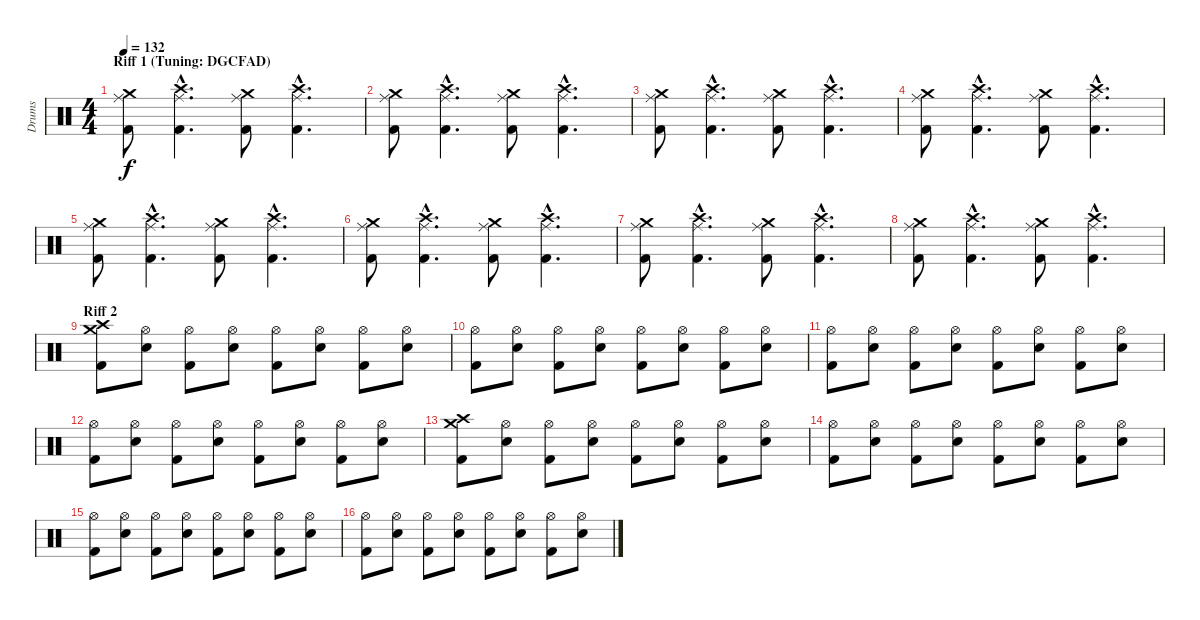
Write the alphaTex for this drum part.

\track ("Drums" "Drums") {instrument percussion}
\staff {score}
\articulation defaults
\ts (4 4)
\section ("" "Riff 1 (Tuning: DGCFAD)")
\tempo 132
\clef neutral
\ks c
("Ride (middle)" "Crash medium (hit)" "Kick (hit) 2").8{dy f} ("Ride (middle)"{hac} "Crash high (hit)"{hac} "Kick (hit) 2"{hac}).4{d} ("Ride (middle)" "Crash medium (hit)" "Kick (hit) 2").8 ("Ride (middle)"{hac} "Crash high (hit)"{hac} "Kick (hit) 2"{hac}).4{d} |
("Ride (middle)" "Crash medium (hit)" "Kick (hit) 2").8 ("Ride (middle)"{hac} "Crash high (hit)"{hac} "Kick (hit) 2"{hac}).4{d} ("Ride (middle)" "Crash medium (hit)" "Kick (hit) 2").8 ("Ride (middle)"{hac} "Crash high (hit)"{hac} "Kick (hit) 2"{hac}).4{d} |
("Ride (middle)" "Crash medium (hit)" "Kick (hit) 2").8 ("Ride (middle)"{hac} "Crash high (hit)"{hac} "Kick (hit) 2"{hac}).4{d} ("Ride (middle)" "Crash medium (hit)" "Kick (hit) 2").8 ("Ride (middle)"{hac} "Crash high (hit)"{hac} "Kick (hit) 2"{hac}).4{d} |
("Ride (middle)" "Crash medium (hit)" "Kick (hit) 2").8 ("Ride (middle)"{hac} "Crash high (hit)"{hac} "Kick (hit) 2"{hac}).4{d} ("Ride (middle)" "Crash medium (hit)" "Kick (hit) 2").8 ("Ride (middle)"{hac} "Crash high (hit)"{hac} "Kick (hit) 2"{hac}).4{d} |
("Ride (middle)" "Crash medium (hit)" "Kick (hit) 2").8 ("Ride (middle)"{hac} "Crash high (hit)"{hac} "Kick (hit) 2"{hac}).4{d} ("Ride (middle)" "Crash medium (hit)" "Kick (hit) 2").8 ("Ride (middle)"{hac} "Crash high (hit)"{hac} "Kick (hit) 2"{hac}).4{d} |
("Ride (middle)" "Crash medium (hit)" "Kick (hit) 2").8 ("Ride (middle)"{hac} "Crash high (hit)"{hac} "Kick (hit) 2"{hac}).4{d} ("Ride (middle)" "Crash medium (hit)" "Kick (hit) 2").8 ("Ride (middle)"{hac} "Crash high (hit)"{hac} "Kick (hit) 2"{hac}).4{d} |
("Ride (middle)" "Crash medium (hit)" "Kick (hit) 2").8 ("Ride (middle)"{hac} "Crash high (hit)"{hac} "Kick (hit) 2"{hac}).4{d} ("Ride (middle)" "Crash medium (hit)" "Kick (hit) 2").8 ("Ride (middle)"{hac} "Crash high (hit)"{hac} "Kick (hit) 2"{hac}).4{d} |
("Ride (middle)" "Crash medium (hit)" "Kick (hit) 2").8 ("Ride (middle)"{hac} "Crash high (hit)"{hac} "Kick (hit) 2"{hac}).4{d} ("Ride (middle)" "Crash medium (hit)" "Kick (hit) 2").8 ("Ride (middle)"{hac} "Crash high (hit)"{hac} "Kick (hit) 2"{hac}).4{d} |
\section ("" "Riff 2")
("Crash high (hit)" "Crash medium (hit)" "Kick (hit) 2").8 ("Hi-Hat (open)" "Electric Snare (hit)").8 ("Hi-Hat (open)" "Kick (hit) 2").8 ("Hi-Hat (open)" "Electric Snare (hit)").8 ("Hi-Hat (open)" "Kick (hit) 2").8 ("Hi-Hat (open)" "Electric Snare (hit)").8 ("Hi-Hat (open)" "Kick (hit) 2").8 ("Hi-Hat (open)" "Electric Snare (hit)").8 |
("Hi-Hat (open)" "Kick (hit) 2").8 ("Hi-Hat (open)" "Electric Snare (hit)").8 ("Hi-Hat (open)" "Kick (hit) 2").8 ("Hi-Hat (open)" "Electric Snare (hit)").8 ("Hi-Hat (open)" "Kick (hit) 2").8 ("Hi-Hat (open)" "Electric Snare (hit)").8 ("Hi-Hat (open)" "Kick (hit) 2").8 ("Hi-Hat (open)" "Electric Snare (hit)").8 |
("Hi-Hat (open)" "Kick (hit) 2").8 ("Hi-Hat (open)" "Electric Snare (hit)").8 ("Hi-Hat (open)" "Kick (hit) 2").8 ("Hi-Hat (open)" "Electric Snare (hit)").8 ("Hi-Hat (open)" "Kick (hit) 2").8 ("Hi-Hat (open)" "Electric Snare (hit)").8 ("Hi-Hat (open)" "Kick (hit) 2").8 ("Hi-Hat (open)" "Electric Snare (hit)").8 |
("Hi-Hat (open)" "Kick (hit) 2").8 ("Hi-Hat (open)" "Electric Snare (hit)").8 ("Hi-Hat (open)" "Kick (hit) 2").8 ("Hi-Hat (open)" "Electric Snare (hit)").8 ("Hi-Hat (open)" "Kick (hit) 2").8 ("Hi-Hat (open)" "Electric Snare (hit)").8 ("Hi-Hat (open)" "Kick (hit) 2").8 ("Hi-Hat (open)" "Electric Snare (hit)").8 |
("Crash high (hit)" "Crash medium (hit)" "Kick (hit) 2").8 ("Hi-Hat (open)" "Electric Snare (hit)").8 ("Hi-Hat (open)" "Kick (hit) 2").8 ("Hi-Hat (open)" "Electric Snare (hit)").8 ("Hi-Hat (open)" "Kick (hit) 2").8 ("Hi-Hat (open)" "Electric Snare (hit)").8 ("Hi-Hat (open)" "Kick (hit) 2").8 ("Hi-Hat (open)" "Electric Snare (hit)").8 |
("Hi-Hat (open)" "Kick (hit) 2").8 ("Hi-Hat (open)" "Electric Snare (hit)").8 ("Hi-Hat (open)" "Kick (hit) 2").8 ("Hi-Hat (open)" "Electric Snare (hit)").8 ("Hi-Hat (open)" "Kick (hit) 2").8 ("Hi-Hat (open)" "Electric Snare (hit)").8 ("Hi-Hat (open)" "Kick (hit) 2").8 ("Hi-Hat (open)" "Electric Snare (hit)").8 |
("Hi-Hat (open)" "Kick (hit) 2").8 ("Hi-Hat (open)" "Electric Snare (hit)").8 ("Hi-Hat (open)" "Kick (hit) 2").8 ("Hi-Hat (open)" "Electric Snare (hit)").8 ("Hi-Hat (open)" "Kick (hit) 2").8 ("Hi-Hat (open)" "Electric Snare (hit)").8 ("Hi-Hat (open)" "Kick (hit) 2").8 ("Hi-Hat (open)" "Electric Snare (hit)").8 |
("Hi-Hat (open)" "Kick (hit) 2").8 ("Hi-Hat (open)" "Electric Snare (hit)").8 ("Hi-Hat (open)" "Kick (hit) 2").8 ("Hi-Hat (open)" "Electric Snare (hit)").8 ("Hi-Hat (open)" "Kick (hit) 2").8 ("Hi-Hat (open)" "Electric Snare (hit)").8 ("Hi-Hat (open)" "Kick (hit) 2").8 ("Hi-Hat (open)" "Electric Snare (hit)").8
